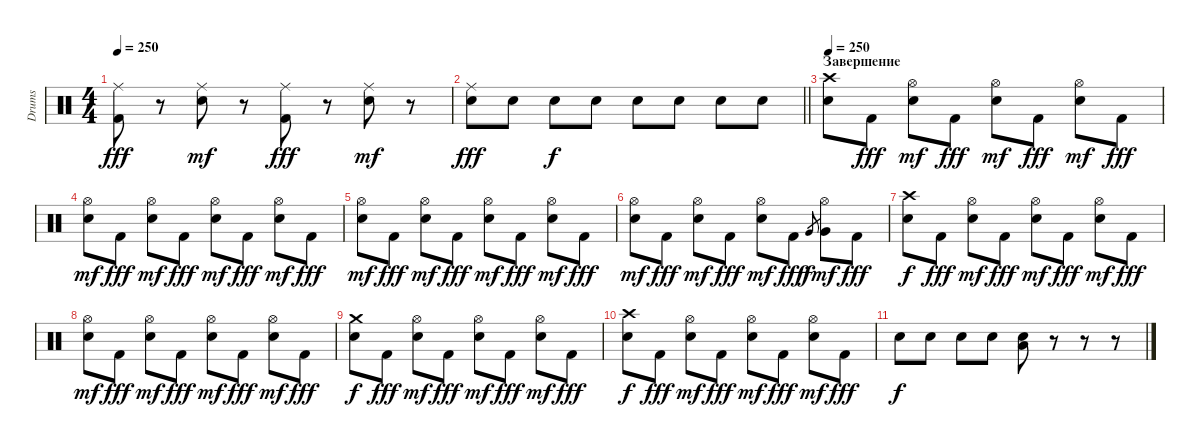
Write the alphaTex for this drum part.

\track ("Drums" "Drums") {instrument percussion}
\staff {score}
\articulation defaults
\ts (4 4)
\tempo 250
\clef neutral
\ks c
("Ride (middle)" "Kick (hit) 2").8{dy fff} r.8 ("Ride (middle)" "Electric Snare (hit)").8{dy mf} r.8 ("Ride (middle)" "Kick (hit) 2").8{dy fff} r.8 ("Ride (middle)" "Electric Snare (hit)").8{dy mf} r.8 |
\barLineRight lightlight
("Ride (middle)" "Electric Snare (hit)").8{dy fff} "Electric Snare (hit)".8 "Electric Snare (hit)".8{dy f} "Electric Snare (hit)".8 "Electric Snare (hit)".8 "Electric Snare (hit)".8 "Electric Snare (hit)".8 "Electric Snare (hit)".8 |
\section ("" "Завершение")
\tempo 250
("Crash high (hit)" "Electric Snare (hit)").8 "Kick (hit) 2".8{dy fff} ("Hi-Hat (open)" "Electric Snare (hit)").8{dy mf} "Kick (hit) 2".8{dy fff} ("Hi-Hat (open)" "Electric Snare (hit)").8{dy mf} "Kick (hit) 2".8{dy fff} ("Hi-Hat (open)" "Electric Snare (hit)").8{dy mf} "Kick (hit) 2".8{dy fff} |
("Hi-Hat (open)" "Electric Snare (hit)").8{dy mf} "Kick (hit) 2".8{dy fff} ("Hi-Hat (open)" "Electric Snare (hit)").8{dy mf} "Kick (hit) 2".8{dy fff} ("Hi-Hat (open)" "Electric Snare (hit)").8{dy mf} "Kick (hit) 2".8{dy fff} ("Hi-Hat (open)" "Electric Snare (hit)").8{dy mf} "Kick (hit) 2".8{dy fff} |
("Hi-Hat (open)" "Electric Snare (hit)").8{dy mf} "Kick (hit) 2".8{dy fff} ("Hi-Hat (open)" "Electric Snare (hit)").8{dy mf} "Kick (hit) 2".8{dy fff} ("Hi-Hat (open)" "Electric Snare (hit)").8{dy mf} "Kick (hit) 2".8{dy fff} ("Hi-Hat (open)" "Electric Snare (hit)").8{dy mf} "Kick (hit) 2".8{dy fff} |
("Hi-Hat (open)" "Electric Snare (hit)").8{dy mf} "Kick (hit) 2".8{dy fff} ("Hi-Hat (open)" "Electric Snare (hit)").8{dy mf} "Kick (hit) 2".8{dy fff} ("Hi-Hat (open)" "Electric Snare (hit)").8{dy mf} "Kick (hit) 2".8{dy fff} "Very Low Tom (hit)".8{gr dy f} ("Hi-Hat (open)" "Very Low Tom (hit)").8{dy mf} "Kick (hit) 2".8{dy fff} |
("Crash high (hit)" "Electric Snare (hit)").8{dy f} "Kick (hit) 2".8{dy fff} ("Hi-Hat (open)" "Electric Snare (hit)").8{dy mf} "Kick (hit) 2".8{dy fff} ("Hi-Hat (open)" "Electric Snare (hit)").8{dy mf} "Kick (hit) 2".8{dy fff} ("Hi-Hat (open)" "Electric Snare (hit)").8{dy mf} "Kick (hit) 2".8{dy fff} |
("Hi-Hat (open)" "Electric Snare (hit)").8{dy mf} "Kick (hit) 2".8{dy fff} ("Hi-Hat (open)" "Electric Snare (hit)").8{dy mf} "Kick (hit) 2".8{dy fff} ("Hi-Hat (open)" "Electric Snare (hit)").8{dy mf} "Kick (hit) 2".8{dy fff} ("Hi-Hat (open)" "Electric Snare (hit)").8{dy mf} "Kick (hit) 2".8{dy fff} |
("Crash medium (hit)" "Electric Snare (hit)").8{dy f} "Kick (hit) 2".8{dy fff} ("Hi-Hat (open)" "Electric Snare (hit)").8{dy mf} "Kick (hit) 2".8{dy fff} ("Hi-Hat (open)" "Electric Snare (hit)").8{dy mf} "Kick (hit) 2".8{dy fff} ("Hi-Hat (open)" "Electric Snare (hit)").8{dy mf} "Kick (hit) 2".8{dy fff} |
("Crash high (hit)" "Electric Snare (hit)").8{dy f} "Kick (hit) 2".8{dy fff} ("Hi-Hat (open)" "Electric Snare (hit)").8{dy mf} "Kick (hit) 2".8{dy fff} ("Hi-Hat (open)" "Electric Snare (hit)").8{dy mf} "Kick (hit) 2".8{dy fff} ("Hi-Hat (open)" "Electric Snare (hit)").8{dy mf} "Kick (hit) 2".8{dy fff} |
"Electric Snare (hit)".8{dy f} "Electric Snare (hit)".8 "Electric Snare (hit)".8 "Electric Snare (hit)".8 ("Low Floor Tom (hit)" "Electric Snare (hit)").8 r.8 r.8 r.8
